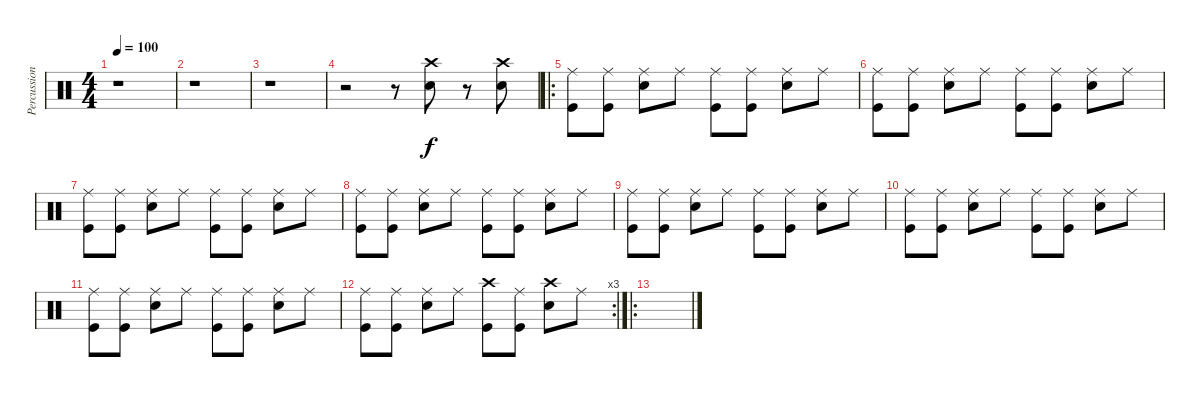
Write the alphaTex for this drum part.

\track ("Percussions" "Percussion") {instrument percussion}
\staff {score}
\articulation defaults
\ts (4 4)
\tempo 100
\clef neutral
\ks c
r.1{dy f} |
r.1 |
r.1 |
r.2 r.8 ("Crash high (hit)" "Electric Snare (hit)").8 r.8 ("Crash high (hit)" "Electric Snare (hit)").8 |
\ro
("Ride (middle)" "Kick (hit)").8 ("Ride (middle)" "Kick (hit)").8 ("Ride (middle)" "Electric Snare (hit)").8 "Ride (middle)".8 ("Ride (middle)" "Kick (hit)").8 ("Ride (middle)" "Kick (hit)").8 ("Ride (middle)" "Electric Snare (hit)").8 "Ride (middle)".8 |
("Ride (middle)" "Kick (hit)").8 ("Ride (middle)" "Kick (hit)").8 ("Ride (middle)" "Electric Snare (hit)").8 "Ride (middle)".8 ("Ride (middle)" "Kick (hit)").8 ("Ride (middle)" "Kick (hit)").8 ("Ride (middle)" "Electric Snare (hit)").8 "Ride (middle)".8 |
("Ride (middle)" "Kick (hit)").8 ("Ride (middle)" "Kick (hit)").8 ("Ride (middle)" "Electric Snare (hit)").8 "Ride (middle)".8 ("Ride (middle)" "Kick (hit)").8 ("Ride (middle)" "Kick (hit)").8 ("Ride (middle)" "Electric Snare (hit)").8 "Ride (middle)".8 |
("Ride (middle)" "Kick (hit)").8 ("Ride (middle)" "Kick (hit)").8 ("Ride (middle)" "Electric Snare (hit)").8 "Ride (middle)".8 ("Ride (middle)" "Kick (hit)").8 ("Ride (middle)" "Kick (hit)").8 ("Ride (middle)" "Electric Snare (hit)").8 "Ride (middle)".8 |
("Ride (middle)" "Kick (hit)").8 ("Ride (middle)" "Kick (hit)").8 ("Ride (middle)" "Electric Snare (hit)").8 "Ride (middle)".8 ("Ride (middle)" "Kick (hit)").8 ("Ride (middle)" "Kick (hit)").8 ("Ride (middle)" "Electric Snare (hit)").8 "Ride (middle)".8 |
("Ride (middle)" "Kick (hit)").8 ("Ride (middle)" "Kick (hit)").8 ("Ride (middle)" "Electric Snare (hit)").8 "Ride (middle)".8 ("Ride (middle)" "Kick (hit)").8 ("Ride (middle)" "Kick (hit)").8 ("Ride (middle)" "Electric Snare (hit)").8 "Ride (middle)".8 |
("Ride (middle)" "Kick (hit)").8 ("Ride (middle)" "Kick (hit)").8 ("Ride (middle)" "Electric Snare (hit)").8 "Ride (middle)".8 ("Ride (middle)" "Kick (hit)").8 ("Ride (middle)" "Kick (hit)").8 ("Ride (middle)" "Electric Snare (hit)").8 "Ride (middle)".8 |
\rc 3
("Ride (middle)" "Kick (hit)").8 ("Ride (middle)" "Kick (hit)").8 ("Ride (middle)" "Electric Snare (hit)").8 "Ride (middle)".8 ("Crash high (hit)" "Kick (hit)").8 ("Ride (middle)" "Kick (hit)").8 ("Crash high (hit)" "Electric Snare (hit)").8 "Ride (middle)".8 |
\ro
